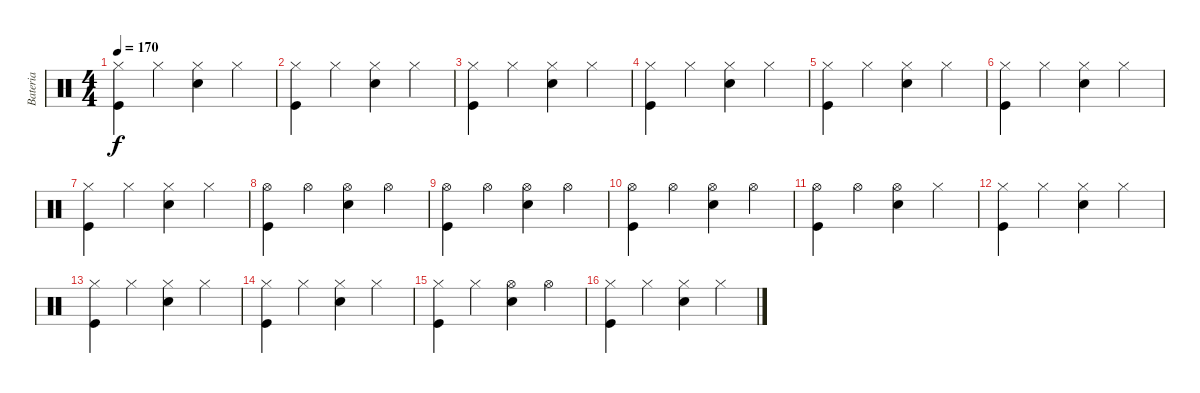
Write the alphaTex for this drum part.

\track ("Bateria" "Bateria") {instrument percussion}
\staff {score}
\articulation defaults
\ts (4 4)
\tempo 170
\clef neutral
\ks c
("Hi-Hat (closed)" "Kick (hit)").4{dy f} "Hi-Hat (closed)".4 ("Hi-Hat (closed)" "Snare (hit) 2").4 "Hi-Hat (closed)".4 |
("Hi-Hat (closed)" "Kick (hit)").4 "Hi-Hat (closed)".4 ("Hi-Hat (closed)" "Snare (hit) 2").4 "Hi-Hat (closed)".4 |
("Hi-Hat (closed)" "Kick (hit)").4 "Hi-Hat (closed)".4 ("Hi-Hat (closed)" "Snare (hit) 2").4 "Hi-Hat (closed)".4 |
("Hi-Hat (closed)" "Kick (hit)").4 "Hi-Hat (closed)".4 ("Hi-Hat (closed)" "Snare (hit) 2").4 "Hi-Hat (closed)".4 |
("Hi-Hat (closed)" "Kick (hit)").4 "Hi-Hat (closed)".4 ("Hi-Hat (closed)" "Snare (hit) 2").4 "Hi-Hat (closed)".4 |
("Hi-Hat (closed)" "Kick (hit)").4 "Hi-Hat (closed)".4 ("Hi-Hat (closed)" "Snare (hit) 2").4 "Hi-Hat (closed)".4 |
("Hi-Hat (closed)" "Kick (hit)").4 "Hi-Hat (closed)".4 ("Hi-Hat (closed)" "Snare (hit) 2").4 "Hi-Hat (closed)".4 |
("Hi-Hat (open)" "Kick (hit)").4 "Hi-Hat (open)".4 ("Hi-Hat (open)" "Snare (hit) 2").4 "Hi-Hat (open)".4 |
("Hi-Hat (open)" "Kick (hit)").4 "Hi-Hat (open)".4 ("Hi-Hat (open)" "Snare (hit) 2").4 "Hi-Hat (open)".4 |
("Hi-Hat (open)" "Kick (hit)").4 "Hi-Hat (open)".4 ("Hi-Hat (open)" "Snare (hit) 2").4 "Hi-Hat (open)".4 |
("Hi-Hat (open)" "Kick (hit)").4 "Hi-Hat (open)".4 ("Hi-Hat (open)" "Snare (hit) 2").4 "Hi-Hat (closed)".4 |
("Hi-Hat (closed)" "Kick (hit)").4 "Hi-Hat (closed)".4 ("Hi-Hat (closed)" "Snare (hit) 2").4 "Hi-Hat (closed)".4 |
("Hi-Hat (closed)" "Kick (hit)").4 "Hi-Hat (closed)".4 ("Hi-Hat (closed)" "Snare (hit) 2").4 "Hi-Hat (closed)".4 |
("Hi-Hat (closed)" "Kick (hit)").4 "Hi-Hat (closed)".4 ("Hi-Hat (closed)" "Snare (hit) 2").4 "Hi-Hat (closed)".4 |
("Hi-Hat (closed)" "Kick (hit)").4 "Hi-Hat (closed)".4 ("Hi-Hat (open)" "Snare (hit) 2").4 "Hi-Hat (open)".4 |
("Hi-Hat (closed)" "Kick (hit)").4 "Hi-Hat (closed)".4 ("Hi-Hat (closed)" "Snare (hit) 2").4 "Hi-Hat (closed)".4
